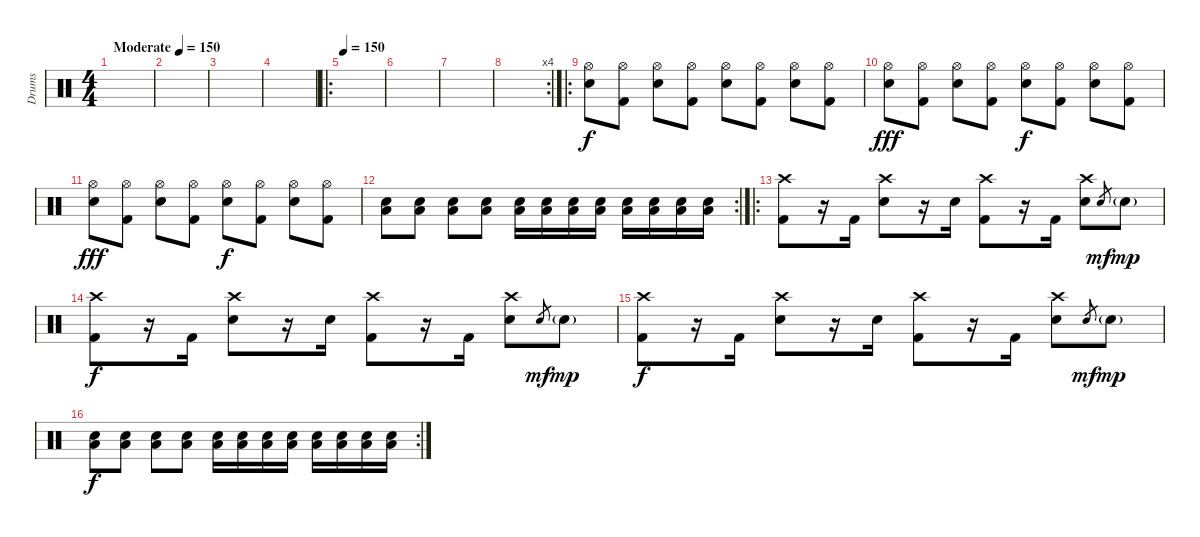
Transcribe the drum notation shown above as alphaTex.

\track ("Drums" "Drums") {instrument percussion}
\staff {score}
\articulation defaults
\ts (4 4)
\tempo (150 "Moderate")
\clef neutral
\ks c
|
|
|
|
\ro
\tempo 150
|
|
|
\rc 4
|
\ro
("Hi-Hat (open)" "Snare (hit) 2").8 ("Hi-Hat (open)" "Kick (hit) 2").8 ("Hi-Hat (open)" "Snare (hit) 2").8 ("Hi-Hat (open)" "Kick (hit) 2").8 ("Hi-Hat (open)" "Snare (hit) 2").8{dy f} ("Hi-Hat (open)" "Kick (hit) 2").8 ("Hi-Hat (open)" "Snare (hit) 2").8 ("Hi-Hat (open)" "Kick (hit) 2").8 |
("Hi-Hat (open)" "Snare (hit) 2").8{dy fff} ("Hi-Hat (open)" "Kick (hit) 2").8 ("Hi-Hat (open)" "Snare (hit) 2").8 ("Hi-Hat (open)" "Kick (hit) 2").8 ("Hi-Hat (open)" "Snare (hit) 2").8{dy f} ("Hi-Hat (open)" "Kick (hit) 2").8 ("Hi-Hat (open)" "Snare (hit) 2").8 ("Hi-Hat (open)" "Kick (hit) 2").8 |
("Hi-Hat (open)" "Snare (hit) 2").8{dy fff} ("Hi-Hat (open)" "Kick (hit) 2").8 ("Hi-Hat (open)" "Snare (hit) 2").8 ("Hi-Hat (open)" "Kick (hit) 2").8 ("Hi-Hat (open)" "Snare (hit) 2").8{dy f} ("Hi-Hat (open)" "Kick (hit) 2").8 ("Hi-Hat (open)" "Snare (hit) 2").8 ("Hi-Hat (open)" "Kick (hit) 2").8 |
\rc 2
("Low Tom (hit)" "Snare (hit) 2").8 ("Low Tom (hit)" "Snare (hit) 2").8 ("Low Tom (hit)" "Snare (hit) 2").8 ("Low Tom (hit)" "Snare (hit) 2").8 ("Low Tom (hit)" "Snare (hit) 2").16 ("Low Tom (hit)" "Snare (hit) 2").16 ("Low Tom (hit)" "Snare (hit) 2").16 ("Low Tom (hit)" "Snare (hit) 2").16 ("Low Tom (hit)" "Snare (hit) 2").16 ("Low Tom (hit)" "Snare (hit) 2").16 ("Low Tom (hit)" "Snare (hit) 2").16 ("Low Tom (hit)" "Snare (hit) 2").16 |
\ro
("Crash high (hit)" "Kick (hit) 2").8 r.16 "Kick (hit) 2".16 ("Crash high (hit)" "Electric Snare (hit)").8 r.16 "Electric Snare (hit)".16 ("Crash high (hit)" "Kick (hit) 2").8 r.16 "Kick (hit) 2".16 ("Crash high (hit)" "Electric Snare (hit)").8 "Electric Snare (hit)".8{gr dy mf} "Electric Snare (hit)"{g}.8{dy mp} |
("Crash high (hit)" "Kick (hit) 2").8{dy f} r.16 "Kick (hit) 2".16 ("Crash high (hit)" "Electric Snare (hit)").8 r.16 "Electric Snare (hit)".16 ("Crash high (hit)" "Kick (hit) 2").8 r.16 "Kick (hit) 2".16 ("Crash high (hit)" "Electric Snare (hit)").8 "Electric Snare (hit)".8{gr dy mf} "Electric Snare (hit)"{g}.8{dy mp} |
("Crash high (hit)" "Kick (hit) 2").8{dy f} r.16 "Kick (hit) 2".16 ("Crash high (hit)" "Electric Snare (hit)").8 r.16 "Electric Snare (hit)".16 ("Crash high (hit)" "Kick (hit) 2").8 r.16 "Kick (hit) 2".16 ("Crash high (hit)" "Electric Snare (hit)").8 "Electric Snare (hit)".8{gr dy mf} "Electric Snare (hit)"{g}.8{dy mp} |
\rc 2
("Low Tom (hit)" "Snare (hit) 2").8{dy f} ("Low Tom (hit)" "Snare (hit) 2").8 ("Low Tom (hit)" "Snare (hit) 2").8 ("Low Tom (hit)" "Snare (hit) 2").8 ("Low Tom (hit)" "Snare (hit) 2").16 ("Low Tom (hit)" "Snare (hit) 2").16 ("Low Tom (hit)" "Snare (hit) 2").16 ("Low Tom (hit)" "Snare (hit) 2").16 ("Low Tom (hit)" "Snare (hit) 2").16 ("Low Tom (hit)" "Snare (hit) 2").16 ("Low Tom (hit)" "Snare (hit) 2").16 ("Low Tom (hit)" "Snare (hit) 2").16
